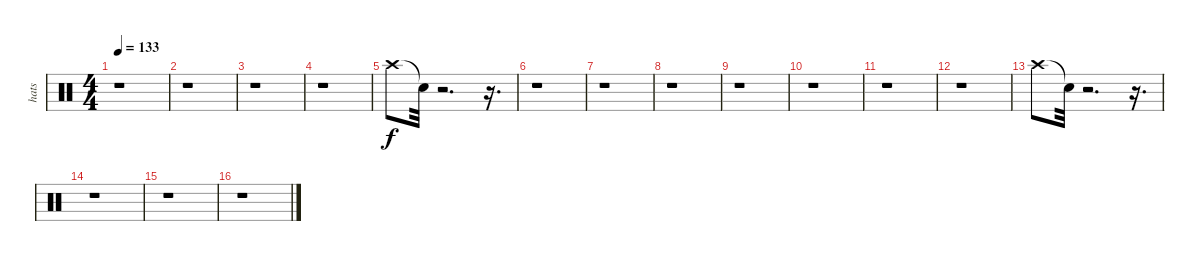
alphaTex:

\track ("hats" "hats") {instrument percussion}
\staff {score}
\articulation defaults
\ts (4 4)
\tempo 133
\clef neutral
\ks c
r.1{dy f} |
r.1 |
r.1 |
r.1 |
"Crash high (hit)".8 "Snare (hit)"{t}.32 r.2{d} r.16{d} |
r.1 |
r.1 |
r.1 |
r.1 |
r.1 |
r.1 |
r.1 |
"Crash high (hit)".8 "Snare (hit)"{t}.32 r.2{d} r.16{d} |
r.1 |
r.1 |
r.1
